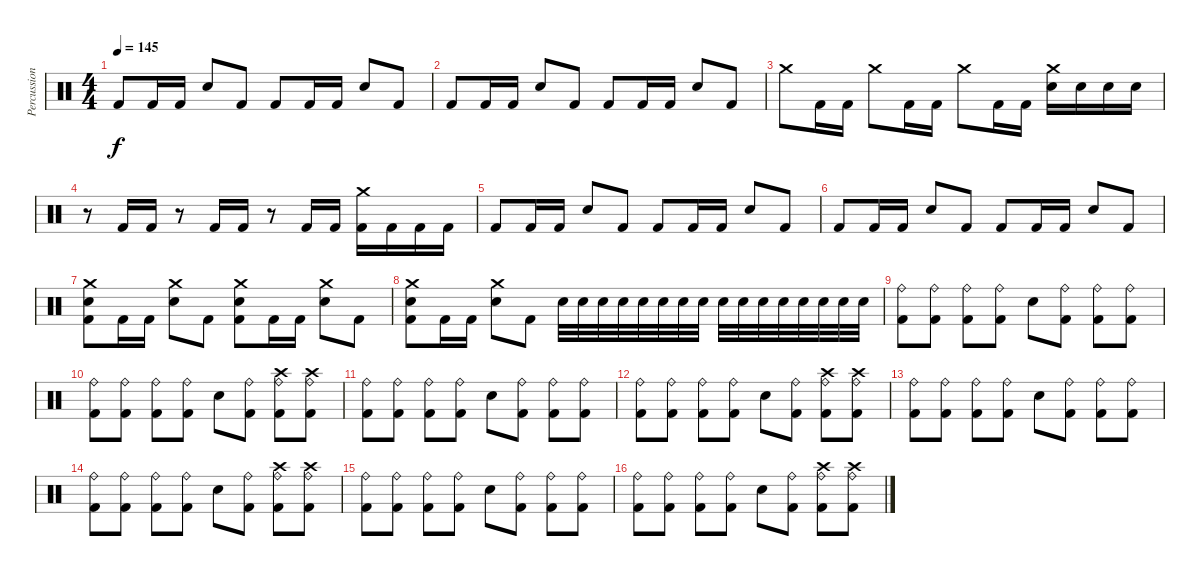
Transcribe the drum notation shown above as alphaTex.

\track ("Percussion" "Percussion") {instrument percussion}
\staff {score}
\articulation defaults
\ts (4 4)
\tempo 145
\clef neutral
\ks c "Kick (hit) 2".8{dy f} "Kick (hit) 2".16 "Kick (hit) 2".16 "Snare (hit) 2".8 "Kick (hit) 2".8 "Kick (hit) 2".8 "Kick (hit) 2".16 "Kick (hit) 2".16 "Snare (hit) 2".8 "Kick (hit) 2".8
|
"Kick (hit) 2".8 "Kick (hit) 2".16 "Kick (hit) 2".16 "Snare (hit) 2".8 "Kick (hit) 2".8 "Kick (hit) 2".8 "Kick (hit) 2".16 "Kick (hit) 2".16 "Snare (hit) 2".8 "Kick (hit) 2".8 |
"Crash medium (hit)".8 "Kick (hit) 2".16 "Kick (hit) 2".16 "Crash medium (hit)".8 "Kick (hit) 2".16 "Kick (hit) 2".16 "Crash medium (hit)".8 "Kick (hit) 2".16 "Kick (hit) 2".16 ("Crash medium (hit)" "Snare (hit) 2").16 "Snare (hit) 2".16 "Snare (hit) 2".16 "Snare (hit) 2".16 |
r.8 "Kick (hit) 2".16 "Kick (hit) 2".16 r.8 "Kick (hit) 2".16 "Kick (hit) 2".16 r.8 "Kick (hit) 2".16 "Kick (hit) 2".16 ("Crash medium (hit)" "Kick (hit) 2").16 "Kick (hit) 2".16 "Kick (hit) 2".16 "Kick (hit) 2".16 |
"Kick (hit) 2".8 "Kick (hit) 2".16 "Kick (hit) 2".16 "Snare (hit) 2".8 "Kick (hit) 2".8 "Kick (hit) 2".8 "Kick (hit) 2".16 "Kick (hit) 2".16 "Snare (hit) 2".8 "Kick (hit) 2".8 |
"Kick (hit) 2".8 "Kick (hit) 2".16 "Kick (hit) 2".16 "Snare (hit) 2".8 "Kick (hit) 2".8 "Kick (hit) 2".8 "Kick (hit) 2".16 "Kick (hit) 2".16 "Snare (hit) 2".8 "Kick (hit) 2".8 |
("Crash medium (hit)" "Snare (hit) 2" "Kick (hit) 2").8 "Kick (hit) 2".16 "Kick (hit) 2".16 ("Crash medium (hit)" "Snare (hit) 2").8 "Kick (hit) 2".8 ("Crash medium (hit)" "Snare (hit) 2" "Kick (hit) 2").8 "Kick (hit) 2".16 "Kick (hit) 2".16 ("Crash medium (hit)" "Snare (hit) 2").8 "Kick (hit) 2".8 |
("Crash medium (hit)" "Snare (hit) 2" "Kick (hit) 2").8 "Kick (hit) 2".16 "Kick (hit) 2".16 ("Crash medium (hit)" "Snare (hit) 2").8 "Kick (hit) 2".8 "Snare (hit) 2".32 "Snare (hit) 2".32 "Snare (hit) 2".32 "Snare (hit) 2".32 "Snare (hit) 2".32 "Snare (hit) 2".32 "Snare (hit) 2".32 "Snare (hit) 2".32 "Snare (hit) 2".32 "Snare (hit) 2".32 "Snare (hit) 2".32 "Snare (hit) 2".32 "Snare (hit) 2".32 "Snare (hit) 2".32 "Snare (hit) 2".32 "Snare (hit) 2".32 |
("Ride (bell)" "Kick (hit) 2").8 ("Ride (bell)" "Kick (hit) 2").8 ("Ride (bell)" "Kick (hit) 2").8 ("Ride (bell)" "Kick (hit) 2").8 "Snare (hit) 2".8 ("Ride (bell)" "Kick (hit) 2").8 ("Ride (bell)" "Kick (hit) 2").8 ("Ride (bell)" "Kick (hit) 2").8 |
("Ride (bell)" "Kick (hit) 2").8 ("Ride (bell)" "Kick (hit) 2").8 ("Ride (bell)" "Kick (hit) 2").8 ("Ride (bell)" "Kick (hit) 2").8 "Snare (hit) 2".8 ("Ride (bell)" "Kick (hit) 2").8 ("Crash high (hit)" "Ride (bell)" "Kick (hit) 2").8 ("Crash high (hit)" "Ride (bell)" "Kick (hit) 2").8 |
("Ride (bell)" "Kick (hit) 2").8 ("Ride (bell)" "Kick (hit) 2").8 ("Ride (bell)" "Kick (hit) 2").8 ("Ride (bell)" "Kick (hit) 2").8 "Snare (hit) 2".8 ("Ride (bell)" "Kick (hit) 2").8 ("Ride (bell)" "Kick (hit) 2").8 ("Ride (bell)" "Kick (hit) 2").8 |
("Ride (bell)" "Kick (hit) 2").8 ("Ride (bell)" "Kick (hit) 2").8 ("Ride (bell)" "Kick (hit) 2").8 ("Ride (bell)" "Kick (hit) 2").8 "Snare (hit) 2".8 ("Ride (bell)" "Kick (hit) 2").8 ("Crash high (hit)" "Ride (bell)" "Kick (hit) 2").8 ("Crash high (hit)" "Ride (bell)" "Kick (hit) 2").8 |
("Ride (bell)" "Kick (hit) 2").8 ("Ride (bell)" "Kick (hit) 2").8 ("Ride (bell)" "Kick (hit) 2").8 ("Ride (bell)" "Kick (hit) 2").8 "Snare (hit) 2".8 ("Ride (bell)" "Kick (hit) 2").8 ("Ride (bell)" "Kick (hit) 2").8 ("Ride (bell)" "Kick (hit) 2").8 |
("Ride (bell)" "Kick (hit) 2").8 ("Ride (bell)" "Kick (hit) 2").8 ("Ride (bell)" "Kick (hit) 2").8 ("Ride (bell)" "Kick (hit) 2").8 "Snare (hit) 2".8 ("Ride (bell)" "Kick (hit) 2").8 ("Crash high (hit)" "Ride (bell)" "Kick (hit) 2").8 ("Crash high (hit)" "Ride (bell)" "Kick (hit) 2").8 |
("Ride (bell)" "Kick (hit) 2").8 ("Ride (bell)" "Kick (hit) 2").8 ("Ride (bell)" "Kick (hit) 2").8 ("Ride (bell)" "Kick (hit) 2").8 "Snare (hit) 2".8 ("Ride (bell)" "Kick (hit) 2").8 ("Ride (bell)" "Kick (hit) 2").8 ("Ride (bell)" "Kick (hit) 2").8 |
("Ride (bell)" "Kick (hit) 2").8 ("Ride (bell)" "Kick (hit) 2").8 ("Ride (bell)" "Kick (hit) 2").8 ("Ride (bell)" "Kick (hit) 2").8 "Snare (hit) 2".8 ("Ride (bell)" "Kick (hit) 2").8 ("Crash high (hit)" "Ride (bell)" "Kick (hit) 2").8 ("Crash high (hit)" "Ride (bell)" "Kick (hit) 2").8
